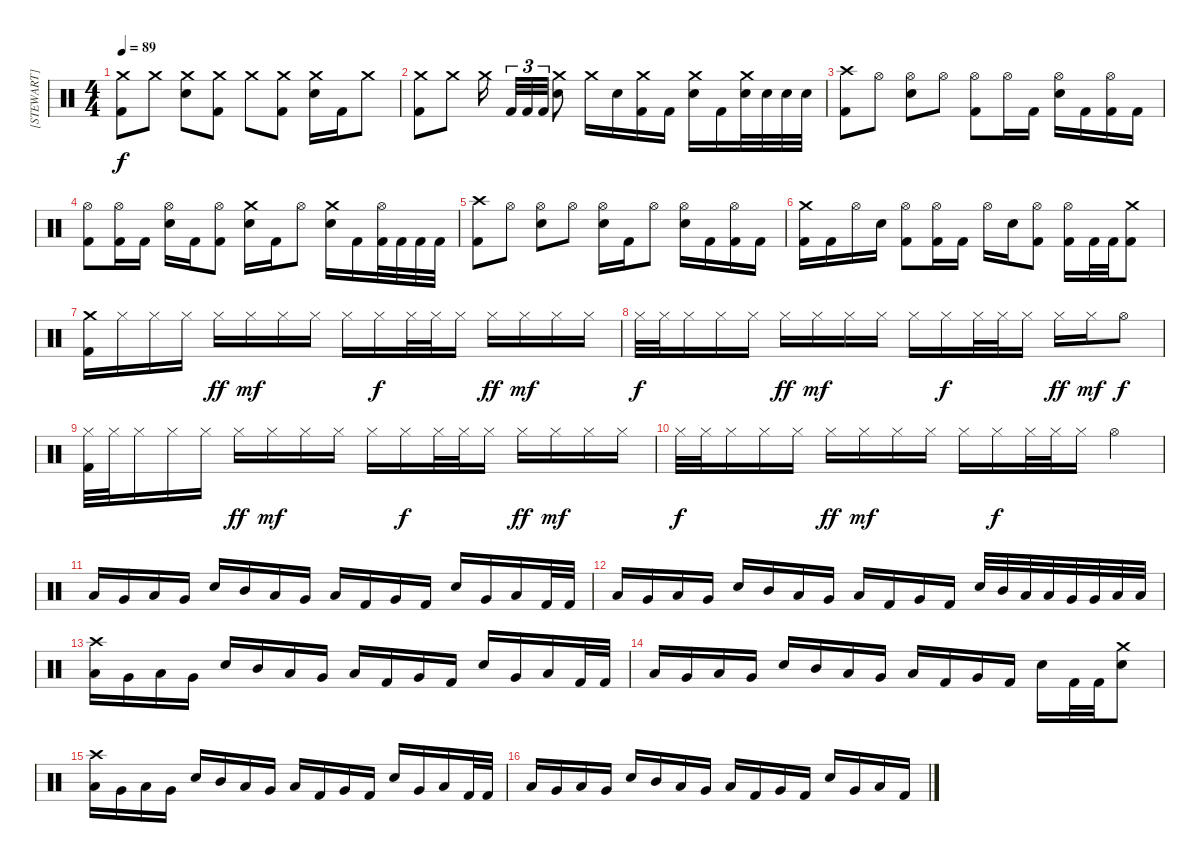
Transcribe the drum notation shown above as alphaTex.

\track ("[STEWART]" "[STEWART]") {instrument percussion}
\staff {score}
\articulation defaults
\ts (4 4)
\tempo 89
\clef neutral
\ks c
("Crash medium (hit)" "Kick (hit) 2").8{dy f} "Crash medium (hit)".8 ("Crash medium (hit)" "Electric Snare (hit)").8 ("Crash medium (hit)" "Kick (hit) 2").8 "Crash medium (hit)".8 ("Crash medium (hit)" "Kick (hit) 2").8 ("Crash medium (hit)" "Electric Snare (hit)").16 "Kick (hit) 2".16 "Crash medium (hit)".8 |
("Crash medium (hit)" "Kick (hit) 2").8 "Crash medium (hit)".8 "Crash medium (hit)".16 "Kick (hit) 2".32{tu (3 2)} "Kick (hit) 2".32{tu (3 2)} "Kick (hit) 2".32{tu (3 2)} ("Crash medium (hit)" "Electric Snare (hit)").8 "Crash medium (hit)".16 "Electric Snare (hit)".16 ("Crash medium (hit)" "Kick (hit) 2").16 "Kick (hit) 2".16 ("Crash medium (hit)" "Electric Snare (hit)").16 "Kick (hit) 2".16 ("Crash medium (hit)" "Electric Snare (hit)").32 "Electric Snare (hit)".32 "Electric Snare (hit)".32 "Electric Snare (hit)".32 |
("Crash high (hit)" "Kick (hit) 2").8 "Hi-Hat (open)".8 ("Hi-Hat (open)" "Electric Snare (hit)").8 "Hi-Hat (open)".8 ("Hi-Hat (open)" "Kick (hit) 2").8 "Hi-Hat (open)".16 "Kick (hit) 2".16 ("Hi-Hat (open)" "Electric Snare (hit)").16 "Kick (hit) 2".16 ("Hi-Hat (open)" "Kick (hit) 2").16 "Kick (hit) 2".16 |
("Hi-Hat (open)" "Kick (hit) 2").8 ("Hi-Hat (open)" "Kick (hit) 2").16 "Kick (hit) 2".16 ("Hi-Hat (open)" "Electric Snare (hit)").16 "Kick (hit) 2".16 ("Hi-Hat (open)" "Kick (hit) 2").8 ("Crash medium (hit)" "Electric Snare (hit)").16 "Kick (hit) 2".16 "Hi-Hat (open)".8 ("Crash medium (hit)" "Electric Snare (hit)").16 "Kick (hit) 2".16 ("Hi-Hat (open)" "Kick (hit) 2").32 "Kick (hit) 2".32 "Kick (hit) 2".32 "Kick (hit) 2".32 |
("Crash high (hit)" "Kick (hit) 2").8 "Hi-Hat (open)".8 ("Hi-Hat (open)" "Electric Snare (hit)").8 "Hi-Hat (open)".8 ("Hi-Hat (open)" "Electric Snare (hit)").16 "Kick (hit) 2".16 "Hi-Hat (open)".8 ("Hi-Hat (open)" "Electric Snare (hit)").16 "Kick (hit) 2".16 ("Hi-Hat (open)" "Kick (hit) 2").16 "Kick (hit) 2".16 |
("Crash medium (hit)" "Kick (hit) 2").16 "Kick (hit) 2".16 "Hi-Hat (open)".16 "Electric Snare (hit)".16 ("Hi-Hat (open)" "Kick (hit) 2").8 ("Hi-Hat (open)" "Kick (hit) 2").16 "Kick (hit) 2".16 "Hi-Hat (open)".16 "Electric Snare (hit)".16 ("Hi-Hat (open)" "Kick (hit) 2").8 ("Hi-Hat (open)" "Kick (hit) 2").16 "Kick (hit) 2".32 "Kick (hit) 2".32 ("Crash medium (hit)" "Kick (hit) 2").8 |
("Crash medium (hit)" "Kick (hit) 2").16 "Hi-Hat (closed)".16 "Hi-Hat (closed)".16 "Hi-Hat (closed)".16 "Hi-Hat (closed)".16{dy ff} "Hi-Hat (closed)".16{dy mf} "Hi-Hat (closed)".16 "Hi-Hat (closed)".16 "Hi-Hat (closed)".16 "Hi-Hat (closed)".16{dy f} "Hi-Hat (closed)".32 "Hi-Hat (closed)".32 "Hi-Hat (closed)".16 "Hi-Hat (closed)".16{dy ff} "Hi-Hat (closed)".16{dy mf} "Hi-Hat (closed)".16 "Hi-Hat (closed)".16 |
"Hi-Hat (closed)".32{dy f} "Hi-Hat (closed)".32 "Hi-Hat (closed)".16 "Hi-Hat (closed)".16 "Hi-Hat (closed)".16 "Hi-Hat (closed)".16{dy ff} "Hi-Hat (closed)".16{dy mf} "Hi-Hat (closed)".16 "Hi-Hat (closed)".16 "Hi-Hat (closed)".16 "Hi-Hat (closed)".16{dy f} "Hi-Hat (closed)".32 "Hi-Hat (closed)".32 "Hi-Hat (closed)".16 "Hi-Hat (closed)".16{dy ff} "Hi-Hat (closed)".16{dy mf} "Hi-Hat (open)".8{dy f} |
("Hi-Hat (closed)" "Kick (hit) 2").32 "Hi-Hat (closed)".32 "Hi-Hat (closed)".16 "Hi-Hat (closed)".16 "Hi-Hat (closed)".16 "Hi-Hat (closed)".16{dy ff} "Hi-Hat (closed)".16{dy mf} "Hi-Hat (closed)".16 "Hi-Hat (closed)".16 "Hi-Hat (closed)".16 "Hi-Hat (closed)".16{dy f} "Hi-Hat (closed)".32 "Hi-Hat (closed)".32 "Hi-Hat (closed)".16 "Hi-Hat (closed)".16{dy ff} "Hi-Hat (closed)".16{dy mf} "Hi-Hat (closed)".16 "Hi-Hat (closed)".16 |
"Hi-Hat (closed)".32{dy f} "Hi-Hat (closed)".32 "Hi-Hat (closed)".16 "Hi-Hat (closed)".16 "Hi-Hat (closed)".16 "Hi-Hat (closed)".16{dy ff} "Hi-Hat (closed)".16{dy mf} "Hi-Hat (closed)".16 "Hi-Hat (closed)".16 "Hi-Hat (closed)".16 "Hi-Hat (closed)".16{dy f} "Hi-Hat (closed)".32 "Hi-Hat (closed)".32 "Hi-Hat (closed)".16 "Hi-Hat (open)".4 |
"Low Tom (hit)".16 "Very Low Tom (hit)".16 "Low Floor Tom (hit)".16 "Very Low Tom (hit)".16 "Electric Snare (hit)".16 "Mid Tom (hit)".16 "Low Tom (hit)".16 "Very Low Tom (hit)".16 "Low Floor Tom (hit)".16 "Kick (hit) 2".16 "Very Low Tom (hit)".16 "Kick (hit) 2".16 "Electric Snare (hit)".16 "Very Low Tom (hit)".16 "Low Floor Tom (hit)".16 "Kick (hit) 2".32 "Kick (hit) 2".32 |
"Low Tom (hit)".16 "Very Low Tom (hit)".16 "Low Floor Tom (hit)".16 "Very Low Tom (hit)".16 "Electric Snare (hit)".16 "Mid Tom (hit)".16 "Low Tom (hit)".16 "Very Low Tom (hit)".16 "Low Floor Tom (hit)".16 "Kick (hit) 2".16 "Very Low Tom (hit)".16 "Kick (hit) 2".16 "Electric Snare (hit)".32 "Mid Tom (hit)".32 "Low Tom (hit)".32 "Low Tom (hit)".32 "Very Low Tom (hit)".32 "Very Low Tom (hit)".32 "Low Floor Tom (hit)".32 "Low Floor Tom (hit)".32 |
("Crash high (hit)" "Low Tom (hit)").16 "Very Low Tom (hit)".16 "Low Floor Tom (hit)".16 "Very Low Tom (hit)".16 "Electric Snare (hit)".16 "Mid Tom (hit)".16 "Low Tom (hit)".16 "Very Low Tom (hit)".16 "Low Floor Tom (hit)".16 "Kick (hit) 2".16 "Very Low Tom (hit)".16 "Kick (hit) 2".16 "Electric Snare (hit)".16 "Very Low Tom (hit)".16 "Low Floor Tom (hit)".16 "Kick (hit) 2".32 "Kick (hit) 2".32 |
"Low Tom (hit)".16 "Very Low Tom (hit)".16 "Low Floor Tom (hit)".16 "Very Low Tom (hit)".16 "Electric Snare (hit)".16 "Mid Tom (hit)".16 "Low Tom (hit)".16 "Very Low Tom (hit)".16 "Low Floor Tom (hit)".16 "Kick (hit) 2".16 "Very Low Tom (hit)".16 "Kick (hit) 2".16 "Electric Snare (hit)".16 "Kick (hit) 2".32 "Kick (hit) 2".32 ("Crash medium (hit)" "Electric Snare (hit)").8 |
("Crash high (hit)" "Low Tom (hit)").16 "Very Low Tom (hit)".16 "Low Floor Tom (hit)".16 "Very Low Tom (hit)".16 "Electric Snare (hit)".16 "Mid Tom (hit)".16 "Low Tom (hit)".16 "Very Low Tom (hit)".16 "Low Floor Tom (hit)".16 "Kick (hit) 2".16 "Very Low Tom (hit)".16 "Kick (hit) 2".16 "Electric Snare (hit)".16 "Very Low Tom (hit)".16 "Low Floor Tom (hit)".16 "Kick (hit) 2".32 "Kick (hit) 2".32 |
"Low Tom (hit)".16 "Very Low Tom (hit)".16 "Low Floor Tom (hit)".16 "Very Low Tom (hit)".16 "Electric Snare (hit)".16 "Mid Tom (hit)".16 "Low Tom (hit)".16 "Very Low Tom (hit)".16 "Low Floor Tom (hit)".16 "Kick (hit) 2".16 "Very Low Tom (hit)".16 "Kick (hit) 2".16 "Electric Snare (hit)".16 "Very Low Tom (hit)".16 "Low Floor Tom (hit)".16 "Kick (hit) 2".16
